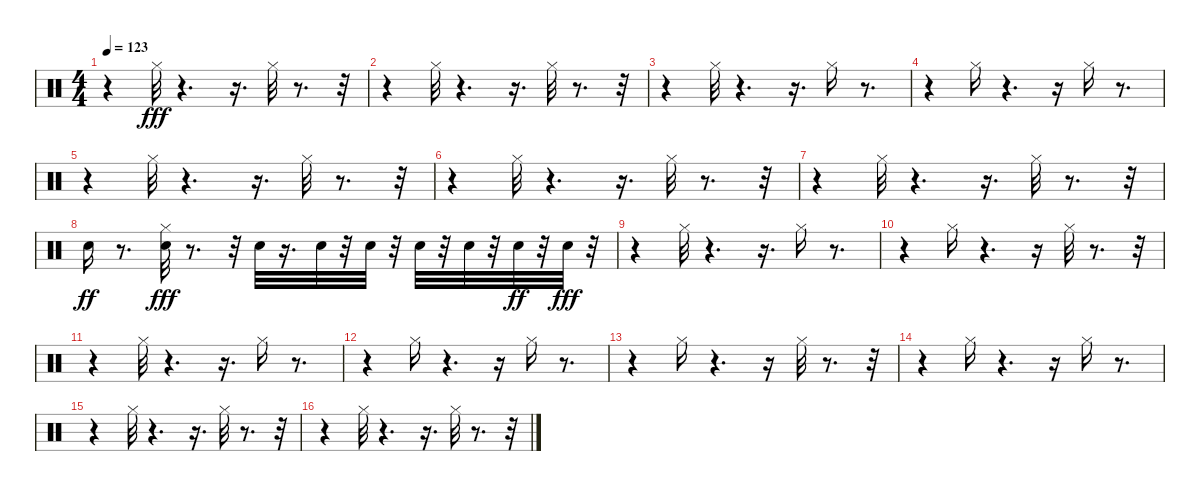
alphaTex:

\track "" {instrument percussion}
\staff {score}
\articulation defaults
\ts (4 4)
\tempo 123
\clef neutral
\ks c
r.4{dy fff} "Hi-Hat (closed)".32 r.4{d} r.16{d} "Hi-Hat (closed)".32 r.8{d} r.32 |
r.4 "Hi-Hat (closed)".32 r.4{d} r.16{d} "Hi-Hat (closed)".32 r.8{d} r.32 |
r.4 "Hi-Hat (closed)".32 r.4{d} r.16{d} "Hi-Hat (closed)".16 r.8{d} |
r.4 "Hi-Hat (closed)".16 r.4{d} r.16 "Hi-Hat (closed)".16 r.8{d} |
r.4 "Hi-Hat (closed)".32 r.4{d} r.16{d} "Hi-Hat (closed)".32 r.8{d} r.32 |
r.4 "Hi-Hat (closed)".32 r.4{d} r.16{d} "Hi-Hat (closed)".32 r.8{d} r.32 |
r.4 "Hi-Hat (closed)".32 r.4{d} r.16{d} "Hi-Hat (closed)".32 r.8{d} r.32 |
"Snare (hit) 2".16{dy ff} r.8{d} ("Snare (hit) 2" "Hi-Hat (closed)").32{dy fff} r.8{d} r.32 "Snare (hit) 2".32 r.16{d} "Snare (hit) 2".32 r.32 "Snare (hit) 2".32 r.32 "Snare (hit) 2".32 r.32 "Snare (hit) 2".32 r.32 "Snare (hit) 2".32{dy ff} r.32 "Snare (hit) 2".32{dy fff} r.32 |
r.4 "Hi-Hat (closed)".32 r.4{d} r.16{d} "Hi-Hat (closed)".16 r.8{d} |
r.4 "Hi-Hat (closed)".16 r.4{d} r.16 "Hi-Hat (closed)".32 r.8{d} r.32 |
r.4 "Hi-Hat (closed)".32 r.4{d} r.16{d} "Hi-Hat (closed)".16 r.8{d} |
r.4 "Hi-Hat (closed)".16 r.4{d} r.16 "Hi-Hat (closed)".16 r.8{d} |
r.4 "Hi-Hat (closed)".16 r.4{d} r.16 "Hi-Hat (closed)".32 r.8{d} r.32 |
r.4 "Hi-Hat (closed)".16 r.4{d} r.16 "Hi-Hat (closed)".16 r.8{d} |
r.4 "Hi-Hat (closed)".32 r.4{d} r.16{d} "Hi-Hat (closed)".32 r.8{d} r.32 |
r.4 "Hi-Hat (closed)".32 r.4{d} r.16{d} "Hi-Hat (closed)".32 r.8{d} r.32
